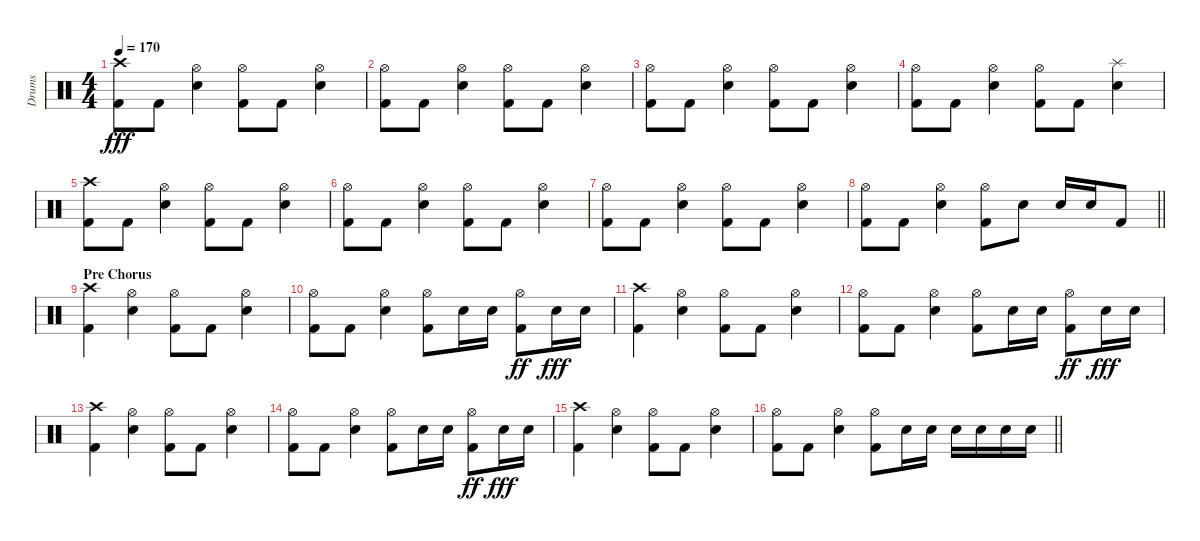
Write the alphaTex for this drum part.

\track ("Drums" "Drums") {instrument percussion}
\staff {score}
\articulation defaults
\ts (4 4)
\tempo 170
\clef neutral
\ks c
("Crash high (hit)" "Kick (hit) 2").8{dy fff} "Kick (hit) 2".8 ("Hi-Hat (open)" "Snare (hit) 2").4 ("Hi-Hat (open)" "Kick (hit) 2").8 "Kick (hit) 2".8 ("Hi-Hat (open)" "Snare (hit) 2").4 |
("Hi-Hat (open)" "Kick (hit) 2").8 "Kick (hit) 2".8 ("Hi-Hat (open)" "Snare (hit) 2").4 ("Hi-Hat (open)" "Kick (hit) 2").8 "Kick (hit) 2".8 ("Hi-Hat (open)" "Snare (hit) 2").4 |
("Hi-Hat (open)" "Kick (hit) 2").8 "Kick (hit) 2".8 ("Hi-Hat (open)" "Snare (hit) 2").4 ("Hi-Hat (open)" "Kick (hit) 2").8 "Kick (hit) 2".8 ("Hi-Hat (open)" "Snare (hit) 2").4 |
("Hi-Hat (open)" "Kick (hit) 2").8 "Kick (hit) 2".8 ("Hi-Hat (open)" "Snare (hit) 2").4 ("Hi-Hat (open)" "Kick (hit) 2").8 "Kick (hit) 2".8 ("Splash (hit)" "Snare (hit) 2").4 |
("Crash high (hit)" "Kick (hit) 2").8 "Kick (hit) 2".8 ("Hi-Hat (open)" "Snare (hit) 2").4 ("Hi-Hat (open)" "Kick (hit) 2").8 "Kick (hit) 2".8 ("Hi-Hat (open)" "Snare (hit) 2").4 |
("Hi-Hat (open)" "Kick (hit) 2").8 "Kick (hit) 2".8 ("Hi-Hat (open)" "Snare (hit) 2").4 ("Hi-Hat (open)" "Kick (hit) 2").8 "Kick (hit) 2".8 ("Hi-Hat (open)" "Snare (hit) 2").4 |
("Hi-Hat (open)" "Kick (hit) 2").8 "Kick (hit) 2".8 ("Hi-Hat (open)" "Snare (hit) 2").4 ("Hi-Hat (open)" "Kick (hit) 2").8 "Kick (hit) 2".8 ("Hi-Hat (open)" "Snare (hit) 2").4 |
\barLineRight lightlight
("Hi-Hat (open)" "Kick (hit) 2").8 "Kick (hit) 2".8 ("Hi-Hat (open)" "Snare (hit) 2").4 ("Hi-Hat (open)" "Kick (hit) 2").8 "Snare (hit) 2".8 "Snare (hit) 2".16 "Snare (hit) 2".16 "Kick (hit) 2".8 |
\section ("" "Pre Chorus")
("Crash high (hit)" "Kick (hit) 2").4 ("Hi-Hat (open)" "Snare (hit) 2").4 ("Hi-Hat (open)" "Kick (hit) 2").8 "Kick (hit) 2".8 ("Hi-Hat (open)" "Snare (hit) 2").4 |
("Hi-Hat (open)" "Kick (hit) 2").8 "Kick (hit) 2".8 ("Hi-Hat (open)" "Snare (hit) 2").4 ("Hi-Hat (open)" "Kick (hit) 2").8 "Snare (hit) 2".16 "Snare (hit) 2".16 ("Hi-Hat (open)" "Kick (hit) 2").8{dy ff} "Snare (hit) 2".16{dy fff} "Snare (hit) 2".16 |
("Crash high (hit)" "Kick (hit) 2").4 ("Hi-Hat (open)" "Snare (hit) 2").4 ("Hi-Hat (open)" "Kick (hit) 2").8 "Kick (hit) 2".8 ("Hi-Hat (open)" "Snare (hit) 2").4 |
("Hi-Hat (open)" "Kick (hit) 2").8 "Kick (hit) 2".8 ("Hi-Hat (open)" "Snare (hit) 2").4 ("Hi-Hat (open)" "Kick (hit) 2").8 "Snare (hit) 2".16 "Snare (hit) 2".16 ("Hi-Hat (open)" "Kick (hit) 2").8{dy ff} "Snare (hit) 2".16{dy fff} "Snare (hit) 2".16 |
("Crash high (hit)" "Kick (hit) 2").4 ("Hi-Hat (open)" "Snare (hit) 2").4 ("Hi-Hat (open)" "Kick (hit) 2").8 "Kick (hit) 2".8 ("Hi-Hat (open)" "Snare (hit) 2").4 |
("Hi-Hat (open)" "Kick (hit) 2").8 "Kick (hit) 2".8 ("Hi-Hat (open)" "Snare (hit) 2").4 ("Hi-Hat (open)" "Kick (hit) 2").8 "Snare (hit) 2".16 "Snare (hit) 2".16 ("Hi-Hat (open)" "Kick (hit) 2").8{dy ff} "Snare (hit) 2".16{dy fff} "Snare (hit) 2".16 |
("Crash high (hit)" "Kick (hit) 2").4 ("Hi-Hat (open)" "Snare (hit) 2").4 ("Hi-Hat (open)" "Kick (hit) 2").8 "Kick (hit) 2".8 ("Hi-Hat (open)" "Snare (hit) 2").4 |
\barLineRight lightlight
("Hi-Hat (open)" "Kick (hit) 2").8 "Kick (hit) 2".8 ("Hi-Hat (open)" "Snare (hit) 2").4 ("Hi-Hat (open)" "Kick (hit) 2").8 "Snare (hit) 2".16 "Snare (hit) 2".16 "Snare (hit) 2".16 "Snare (hit) 2".16 "Snare (hit) 2".16 "Snare (hit) 2".16
